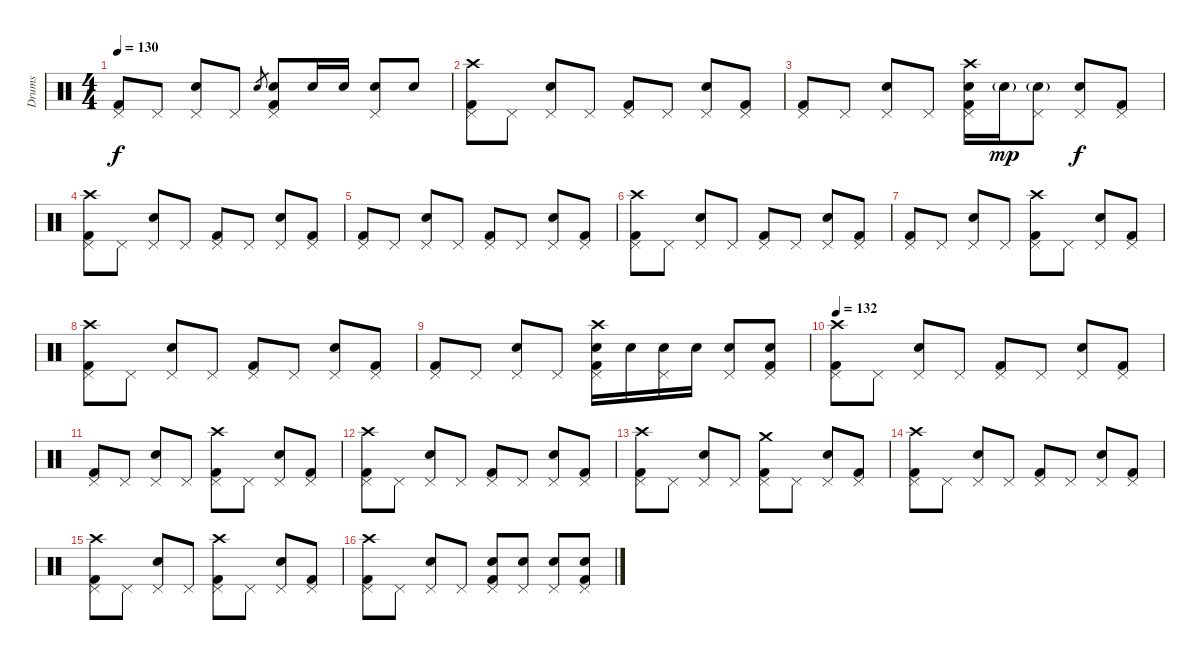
\track ("Drums" "Drums") {instrument percussion}
\staff {score}
\articulation defaults
\ts (4 4)
\tempo 130
\clef neutral
\ks c
("Pedal Hi-Hat (hit)" "Kick (hit) 2").8{dy f} "Pedal Hi-Hat (hit)".8 ("Electric Snare (hit)" "Pedal Hi-Hat (hit)").8 "Pedal Hi-Hat (hit)".8 "Electric Snare (hit)".8{gr} ("Electric Snare (hit)" "Pedal Hi-Hat (hit)" "Kick (hit) 2").8 "Electric Snare (hit)".16 "Electric Snare (hit)".16 ("Electric Snare (hit)" "Pedal Hi-Hat (hit)").8 "Electric Snare (hit)".8 |
("Pedal Hi-Hat (hit)" "Kick (hit) 2" "Crash high (hit)").8 "Pedal Hi-Hat (hit)".8 ("Electric Snare (hit)" "Pedal Hi-Hat (hit)").8 "Pedal Hi-Hat (hit)".8 ("Pedal Hi-Hat (hit)" "Kick (hit) 2").8 "Pedal Hi-Hat (hit)".8 ("Electric Snare (hit)" "Pedal Hi-Hat (hit)").8 ("Pedal Hi-Hat (hit)" "Kick (hit) 2").8 |
("Pedal Hi-Hat (hit)" "Kick (hit) 2").8 "Pedal Hi-Hat (hit)".8 ("Electric Snare (hit)" "Pedal Hi-Hat (hit)").8 "Pedal Hi-Hat (hit)".8 ("Electric Snare (hit)" "Pedal Hi-Hat (hit)" "Kick (hit) 2" "Crash high (hit)").16 "Electric Snare (hit)"{g}.16{dy mp} ("Electric Snare (hit)"{g} "Pedal Hi-Hat (hit)").8 ("Electric Snare (hit)" "Pedal Hi-Hat (hit)").8{dy f} ("Pedal Hi-Hat (hit)" "Kick (hit) 2").8 |
("Pedal Hi-Hat (hit)" "Kick (hit) 2" "Crash high (hit)").8 "Pedal Hi-Hat (hit)".8 ("Electric Snare (hit)" "Pedal Hi-Hat (hit)").8 "Pedal Hi-Hat (hit)".8 ("Pedal Hi-Hat (hit)" "Kick (hit) 2").8 "Pedal Hi-Hat (hit)".8 ("Electric Snare (hit)" "Pedal Hi-Hat (hit)").8 ("Pedal Hi-Hat (hit)" "Kick (hit) 2").8 |
("Pedal Hi-Hat (hit)" "Kick (hit) 2").8 "Pedal Hi-Hat (hit)".8 ("Electric Snare (hit)" "Pedal Hi-Hat (hit)").8 "Pedal Hi-Hat (hit)".8 ("Pedal Hi-Hat (hit)" "Kick (hit) 2").8 "Pedal Hi-Hat (hit)".8 ("Electric Snare (hit)" "Pedal Hi-Hat (hit)").8 ("Pedal Hi-Hat (hit)" "Kick (hit) 2").8 |
("Pedal Hi-Hat (hit)" "Kick (hit) 2" "Crash high (hit)").8 "Pedal Hi-Hat (hit)".8 ("Electric Snare (hit)" "Pedal Hi-Hat (hit)").8 "Pedal Hi-Hat (hit)".8 ("Pedal Hi-Hat (hit)" "Kick (hit) 2").8 "Pedal Hi-Hat (hit)".8 ("Electric Snare (hit)" "Pedal Hi-Hat (hit)").8 ("Pedal Hi-Hat (hit)" "Kick (hit) 2").8 |
("Pedal Hi-Hat (hit)" "Kick (hit) 2").8 "Pedal Hi-Hat (hit)".8 ("Electric Snare (hit)" "Pedal Hi-Hat (hit)").8 "Pedal Hi-Hat (hit)".8 ("Pedal Hi-Hat (hit)" "Kick (hit) 2" "Crash high (hit)").8 "Pedal Hi-Hat (hit)".8 ("Electric Snare (hit)" "Pedal Hi-Hat (hit)").8 ("Pedal Hi-Hat (hit)" "Kick (hit) 2").8 |
("Pedal Hi-Hat (hit)" "Kick (hit) 2" "Crash high (hit)").8 "Pedal Hi-Hat (hit)".8 ("Electric Snare (hit)" "Pedal Hi-Hat (hit)").8 "Pedal Hi-Hat (hit)".8 ("Pedal Hi-Hat (hit)" "Kick (hit) 2").8 "Pedal Hi-Hat (hit)".8 ("Electric Snare (hit)" "Pedal Hi-Hat (hit)").8 ("Pedal Hi-Hat (hit)" "Kick (hit) 2").8 |
("Pedal Hi-Hat (hit)" "Kick (hit) 2").8 "Pedal Hi-Hat (hit)".8 ("Electric Snare (hit)" "Pedal Hi-Hat (hit)").8 "Pedal Hi-Hat (hit)".8 ("Electric Snare (hit)" "Pedal Hi-Hat (hit)" "Kick (hit) 2" "Crash high (hit)").16 "Electric Snare (hit)".16 ("Electric Snare (hit)" "Pedal Hi-Hat (hit)").16 "Electric Snare (hit)".16 ("Electric Snare (hit)" "Pedal Hi-Hat (hit)").8 ("Electric Snare (hit)" "Pedal Hi-Hat (hit)" "Kick (hit) 2").8 |
\tempo 132
("Pedal Hi-Hat (hit)" "Kick (hit) 2" "Crash high (hit)").8 "Pedal Hi-Hat (hit)".8 ("Electric Snare (hit)" "Pedal Hi-Hat (hit)").8 "Pedal Hi-Hat (hit)".8 ("Pedal Hi-Hat (hit)" "Kick (hit) 2").8 "Pedal Hi-Hat (hit)".8 ("Electric Snare (hit)" "Pedal Hi-Hat (hit)").8 ("Pedal Hi-Hat (hit)" "Kick (hit) 2").8 |
("Pedal Hi-Hat (hit)" "Kick (hit) 2").8 "Pedal Hi-Hat (hit)".8 ("Electric Snare (hit)" "Pedal Hi-Hat (hit)").8 "Pedal Hi-Hat (hit)".8 ("Pedal Hi-Hat (hit)" "Kick (hit) 2" "Crash high (hit)").8 "Pedal Hi-Hat (hit)".8 ("Electric Snare (hit)" "Pedal Hi-Hat (hit)").8 ("Pedal Hi-Hat (hit)" "Kick (hit) 2").8 |
("Pedal Hi-Hat (hit)" "Kick (hit) 2" "Crash high (hit)").8 "Pedal Hi-Hat (hit)".8 ("Electric Snare (hit)" "Pedal Hi-Hat (hit)").8 "Pedal Hi-Hat (hit)".8 ("Pedal Hi-Hat (hit)" "Kick (hit) 2").8 "Pedal Hi-Hat (hit)".8 ("Electric Snare (hit)" "Pedal Hi-Hat (hit)").8 ("Pedal Hi-Hat (hit)" "Kick (hit) 2").8 |
("Pedal Hi-Hat (hit)" "Kick (hit) 2" "Crash high (hit)").8 "Pedal Hi-Hat (hit)".8 ("Electric Snare (hit)" "Pedal Hi-Hat (hit)").8 "Pedal Hi-Hat (hit)".8 ("Pedal Hi-Hat (hit)" "Kick (hit) 2" "Crash medium (hit)").8 "Pedal Hi-Hat (hit)".8 ("Electric Snare (hit)" "Pedal Hi-Hat (hit)").8 ("Pedal Hi-Hat (hit)" "Kick (hit) 2").8 |
("Pedal Hi-Hat (hit)" "Kick (hit) 2" "Crash high (hit)").8 "Pedal Hi-Hat (hit)".8 ("Electric Snare (hit)" "Pedal Hi-Hat (hit)").8 "Pedal Hi-Hat (hit)".8 ("Pedal Hi-Hat (hit)" "Kick (hit) 2").8 "Pedal Hi-Hat (hit)".8 ("Electric Snare (hit)" "Pedal Hi-Hat (hit)").8 ("Pedal Hi-Hat (hit)" "Kick (hit) 2").8 |
("Pedal Hi-Hat (hit)" "Kick (hit) 2" "Crash high (hit)").8 "Pedal Hi-Hat (hit)".8 ("Electric Snare (hit)" "Pedal Hi-Hat (hit)").8 "Pedal Hi-Hat (hit)".8 ("Pedal Hi-Hat (hit)" "Kick (hit) 2" "Crash high (hit)").8 "Pedal Hi-Hat (hit)".8 ("Electric Snare (hit)" "Pedal Hi-Hat (hit)").8 ("Pedal Hi-Hat (hit)" "Kick (hit) 2").8 |
("Pedal Hi-Hat (hit)" "Kick (hit) 2" "Crash high (hit)").8 "Pedal Hi-Hat (hit)".8 ("Electric Snare (hit)" "Pedal Hi-Hat (hit)").8 "Pedal Hi-Hat (hit)".8 ("Electric Snare (hit)" "Pedal Hi-Hat (hit)" "Kick (hit) 2").8 ("Electric Snare (hit)" "Pedal Hi-Hat (hit)").8 ("Electric Snare (hit)" "Pedal Hi-Hat (hit)").8 ("Snare (hit) 2" "Pedal Hi-Hat (hit)" "Kick (hit) 2").8
